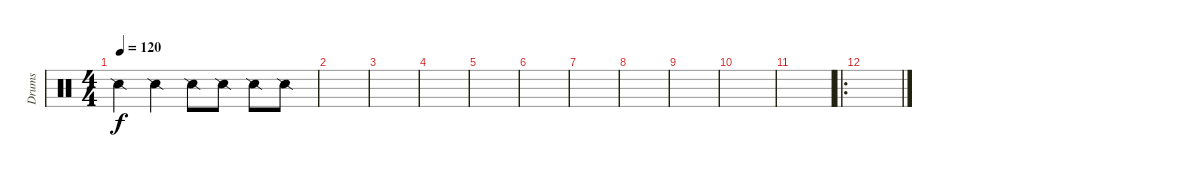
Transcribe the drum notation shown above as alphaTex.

\track ("Drums" "Drums") {instrument percussion}
\staff {score}
\articulation defaults
\ts (4 4)
\tempo 120
\clef neutral
\ks c "Snare (side stick) 2".4{dy f} "Snare (side stick) 2".4 "Snare (side stick) 2".8 "Snare (side stick) 2".8 "Snare (side stick) 2".8 "Snare (side stick) 2".8
|
|
|
|
|
|
|
|
|
|
|
\ro
